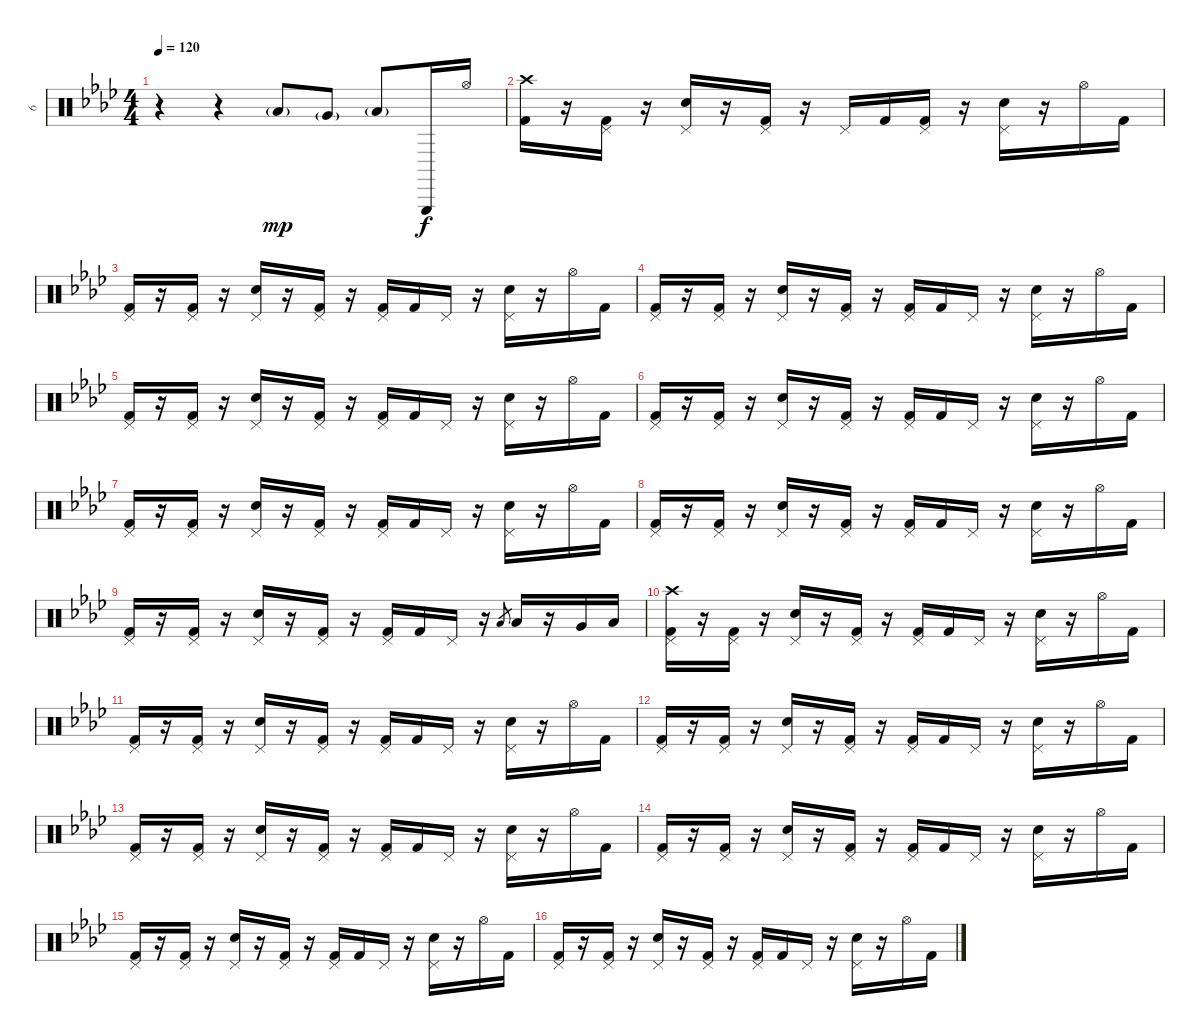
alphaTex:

\track ("6" "6") {instrument percussion}
\staff {score}
\articulation defaults
\ts (4 4)
\tempo 120
\clef neutral
\ks fminor
r.4{dy f} r.4 "Low Tom (hit)"{g}.8{dy mp} "Very Low Tom (hit)"{g}.8 "Low Floor Tom (hit)"{g}.8 "Triangle (hit)".16{dy f} "Hi-Hat (open)".16 |
("Crash high (hit)" "Kick (hit) 2").16 r.16 ("Pedal Hi-Hat (hit)" "Kick (hit) 2").16 r.16 ("Pedal Hi-Hat (hit)" "Electric Snare (hit)").16 r.16 ("Pedal Hi-Hat (hit)" "Kick (hit) 2").16 r.16 "Pedal Hi-Hat (hit)".16 "Kick (hit) 2".16 ("Pedal Hi-Hat (hit)" "Kick (hit) 2").16 r.16 ("Pedal Hi-Hat (hit)" "Electric Snare (hit)").16 r.16 "Hi-Hat (open)".16 "Kick (hit) 2".16 |
("Pedal Hi-Hat (hit)" "Kick (hit) 2").16 r.16 ("Pedal Hi-Hat (hit)" "Kick (hit) 2").16 r.16 ("Pedal Hi-Hat (hit)" "Electric Snare (hit)").16 r.16 ("Pedal Hi-Hat (hit)" "Kick (hit) 2").16 r.16 ("Pedal Hi-Hat (hit)" "Kick (hit) 2").16 "Kick (hit) 2".16 "Pedal Hi-Hat (hit)".16 r.16 ("Pedal Hi-Hat (hit)" "Electric Snare (hit)").16 r.16 "Hi-Hat (open)".16 "Kick (hit) 2".16 |
("Pedal Hi-Hat (hit)" "Kick (hit) 2").16 r.16 ("Pedal Hi-Hat (hit)" "Kick (hit) 2").16 r.16 ("Pedal Hi-Hat (hit)" "Electric Snare (hit)").16 r.16 ("Pedal Hi-Hat (hit)" "Kick (hit) 2").16 r.16 ("Pedal Hi-Hat (hit)" "Kick (hit) 2").16 "Kick (hit) 2".16 "Pedal Hi-Hat (hit)".16 r.16 ("Pedal Hi-Hat (hit)" "Electric Snare (hit)").16 r.16 "Hi-Hat (open)".16 "Kick (hit) 2".16 |
("Pedal Hi-Hat (hit)" "Kick (hit) 2").16 r.16 ("Pedal Hi-Hat (hit)" "Kick (hit) 2").16 r.16 ("Pedal Hi-Hat (hit)" "Electric Snare (hit)").16 r.16 ("Pedal Hi-Hat (hit)" "Kick (hit) 2").16 r.16 ("Pedal Hi-Hat (hit)" "Kick (hit) 2").16 "Kick (hit) 2".16 "Pedal Hi-Hat (hit)".16 r.16 ("Pedal Hi-Hat (hit)" "Electric Snare (hit)").16 r.16 "Hi-Hat (open)".16 "Kick (hit) 2".16 |
("Pedal Hi-Hat (hit)" "Kick (hit) 2").16 r.16 ("Pedal Hi-Hat (hit)" "Kick (hit) 2").16 r.16 ("Pedal Hi-Hat (hit)" "Electric Snare (hit)").16 r.16 ("Pedal Hi-Hat (hit)" "Kick (hit) 2").16 r.16 ("Pedal Hi-Hat (hit)" "Kick (hit) 2").16 "Kick (hit) 2".16 "Pedal Hi-Hat (hit)".16 r.16 ("Pedal Hi-Hat (hit)" "Electric Snare (hit)").16 r.16 "Hi-Hat (open)".16 "Kick (hit) 2".16 |
("Pedal Hi-Hat (hit)" "Kick (hit) 2").16 r.16 ("Pedal Hi-Hat (hit)" "Kick (hit) 2").16 r.16 ("Pedal Hi-Hat (hit)" "Electric Snare (hit)").16 r.16 ("Pedal Hi-Hat (hit)" "Kick (hit) 2").16 r.16 ("Pedal Hi-Hat (hit)" "Kick (hit) 2").16 "Kick (hit) 2".16 "Pedal Hi-Hat (hit)".16 r.16 ("Pedal Hi-Hat (hit)" "Electric Snare (hit)").16 r.16 "Hi-Hat (open)".16 "Kick (hit) 2".16 |
("Pedal Hi-Hat (hit)" "Kick (hit) 2").16 r.16 ("Pedal Hi-Hat (hit)" "Kick (hit) 2").16 r.16 ("Pedal Hi-Hat (hit)" "Electric Snare (hit)").16 r.16 ("Pedal Hi-Hat (hit)" "Kick (hit) 2").16 r.16 ("Pedal Hi-Hat (hit)" "Kick (hit) 2").16 "Kick (hit) 2".16 "Pedal Hi-Hat (hit)".16 r.16 ("Pedal Hi-Hat (hit)" "Electric Snare (hit)").16 r.16 "Hi-Hat (open)".16 "Kick (hit) 2".16 |
("Pedal Hi-Hat (hit)" "Kick (hit) 2").16 r.16 ("Pedal Hi-Hat (hit)" "Kick (hit) 2").16 r.16 ("Pedal Hi-Hat (hit)" "Electric Snare (hit)").16 r.16 ("Pedal Hi-Hat (hit)" "Kick (hit) 2").16 r.16 ("Pedal Hi-Hat (hit)" "Kick (hit) 2").16 "Kick (hit) 2".16 "Pedal Hi-Hat (hit)".16 r.16 "Low Floor Tom (hit)".8{gr} "Low Floor Tom (hit)".16 r.16 "Very Low Tom (hit)".16 "Low Tom (hit)".16 |
("Crash high (hit)" "Pedal Hi-Hat (hit)" "Kick (hit) 2").16 r.16 ("Pedal Hi-Hat (hit)" "Kick (hit) 2").16 r.16 ("Pedal Hi-Hat (hit)" "Electric Snare (hit)").16 r.16 ("Pedal Hi-Hat (hit)" "Kick (hit) 2").16 r.16 ("Pedal Hi-Hat (hit)" "Kick (hit) 2").16 "Kick (hit) 2".16 "Pedal Hi-Hat (hit)".16 r.16 ("Pedal Hi-Hat (hit)" "Electric Snare (hit)").16 r.16 "Hi-Hat (open)".16 "Kick (hit) 2".16 |
("Pedal Hi-Hat (hit)" "Kick (hit) 2").16 r.16 ("Pedal Hi-Hat (hit)" "Kick (hit) 2").16 r.16 ("Pedal Hi-Hat (hit)" "Electric Snare (hit)").16 r.16 ("Pedal Hi-Hat (hit)" "Kick (hit) 2").16 r.16 ("Pedal Hi-Hat (hit)" "Kick (hit) 2").16 "Kick (hit) 2".16 "Pedal Hi-Hat (hit)".16 r.16 ("Pedal Hi-Hat (hit)" "Electric Snare (hit)").16 r.16 "Hi-Hat (open)".16 "Kick (hit) 2".16 |
("Pedal Hi-Hat (hit)" "Kick (hit) 2").16 r.16 ("Pedal Hi-Hat (hit)" "Kick (hit) 2").16 r.16 ("Pedal Hi-Hat (hit)" "Electric Snare (hit)").16 r.16 ("Pedal Hi-Hat (hit)" "Kick (hit) 2").16 r.16 ("Pedal Hi-Hat (hit)" "Kick (hit) 2").16 "Kick (hit) 2".16 "Pedal Hi-Hat (hit)".16 r.16 ("Pedal Hi-Hat (hit)" "Electric Snare (hit)").16 r.16 "Hi-Hat (open)".16 "Kick (hit) 2".16 |
("Pedal Hi-Hat (hit)" "Kick (hit) 2").16 r.16 ("Pedal Hi-Hat (hit)" "Kick (hit) 2").16 r.16 ("Pedal Hi-Hat (hit)" "Electric Snare (hit)").16 r.16 ("Pedal Hi-Hat (hit)" "Kick (hit) 2").16 r.16 ("Pedal Hi-Hat (hit)" "Kick (hit) 2").16 "Kick (hit) 2".16 "Pedal Hi-Hat (hit)".16 r.16 ("Pedal Hi-Hat (hit)" "Electric Snare (hit)").16 r.16 "Hi-Hat (open)".16 "Kick (hit) 2".16 |
("Pedal Hi-Hat (hit)" "Kick (hit) 2").16 r.16 ("Pedal Hi-Hat (hit)" "Kick (hit) 2").16 r.16 ("Pedal Hi-Hat (hit)" "Electric Snare (hit)").16 r.16 ("Pedal Hi-Hat (hit)" "Kick (hit) 2").16 r.16 ("Pedal Hi-Hat (hit)" "Kick (hit) 2").16 "Kick (hit) 2".16 "Pedal Hi-Hat (hit)".16 r.16 ("Pedal Hi-Hat (hit)" "Electric Snare (hit)").16 r.16 "Hi-Hat (open)".16 "Kick (hit) 2".16 |
("Pedal Hi-Hat (hit)" "Kick (hit) 2").16 r.16 ("Pedal Hi-Hat (hit)" "Kick (hit) 2").16 r.16 ("Pedal Hi-Hat (hit)" "Electric Snare (hit)").16 r.16 ("Pedal Hi-Hat (hit)" "Kick (hit) 2").16 r.16 ("Pedal Hi-Hat (hit)" "Kick (hit) 2").16 "Kick (hit) 2".16 "Pedal Hi-Hat (hit)".16 r.16 ("Pedal Hi-Hat (hit)" "Electric Snare (hit)").16 r.16 "Hi-Hat (open)".16 "Kick (hit) 2".16 |
("Pedal Hi-Hat (hit)" "Kick (hit) 2").16 r.16 ("Pedal Hi-Hat (hit)" "Kick (hit) 2").16 r.16 ("Pedal Hi-Hat (hit)" "Electric Snare (hit)").16 r.16 ("Pedal Hi-Hat (hit)" "Kick (hit) 2").16 r.16 ("Pedal Hi-Hat (hit)" "Kick (hit) 2").16 "Kick (hit) 2".16 "Pedal Hi-Hat (hit)".16 r.16 ("Pedal Hi-Hat (hit)" "Electric Snare (hit)").16 r.16 "Hi-Hat (open)".16 "Kick (hit) 2".16
